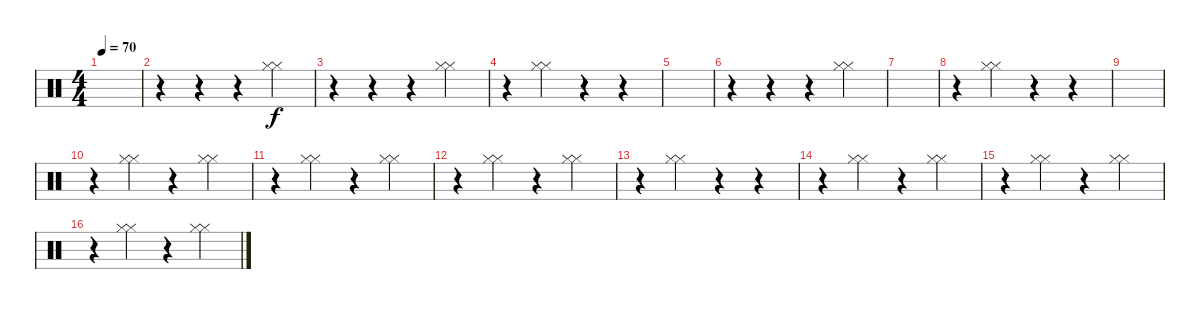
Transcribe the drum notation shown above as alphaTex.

\track "" {instrument percussion}
\staff {score}
\articulation defaults
\ts (4 4)
\tempo 70
\clef neutral
\ks c
|
r.4 r.4 r.4 ("Hi-Hat (closed)" "Hi-Hat (closed)").4 |
r.4 r.4 r.4 ("Hi-Hat (closed)" "Hi-Hat (closed)").4 |
r.4 ("Hi-Hat (closed)" "Hi-Hat (closed)").4 r.4 r.4 |
|
r.4 r.4 r.4 ("Hi-Hat (closed)" "Hi-Hat (closed)").4 |
|
r.4 ("Hi-Hat (closed)" "Hi-Hat (closed)").4 r.4 r.4 |
|
r.4 ("Hi-Hat (closed)" "Hi-Hat (closed)").4 r.4 ("Hi-Hat (closed)" "Hi-Hat (closed)").4 |
r.4 ("Hi-Hat (closed)" "Hi-Hat (closed)").4 r.4 ("Hi-Hat (closed)" "Hi-Hat (closed)").4 |
r.4 ("Hi-Hat (closed)" "Hi-Hat (closed)").4 r.4 ("Hi-Hat (closed)" "Hi-Hat (closed)").4 |
r.4 ("Hi-Hat (closed)" "Hi-Hat (closed)").4 r.4 r.4 |
r.4 ("Hi-Hat (closed)" "Hi-Hat (closed)").4 r.4 ("Hi-Hat (closed)" "Hi-Hat (closed)").4 |
r.4 ("Hi-Hat (closed)" "Hi-Hat (closed)").4 r.4 ("Hi-Hat (closed)" "Hi-Hat (closed)").4 |
r.4 ("Hi-Hat (closed)" "Hi-Hat (closed)").4 r.4 ("Hi-Hat (closed)" "Hi-Hat (closed)").4
